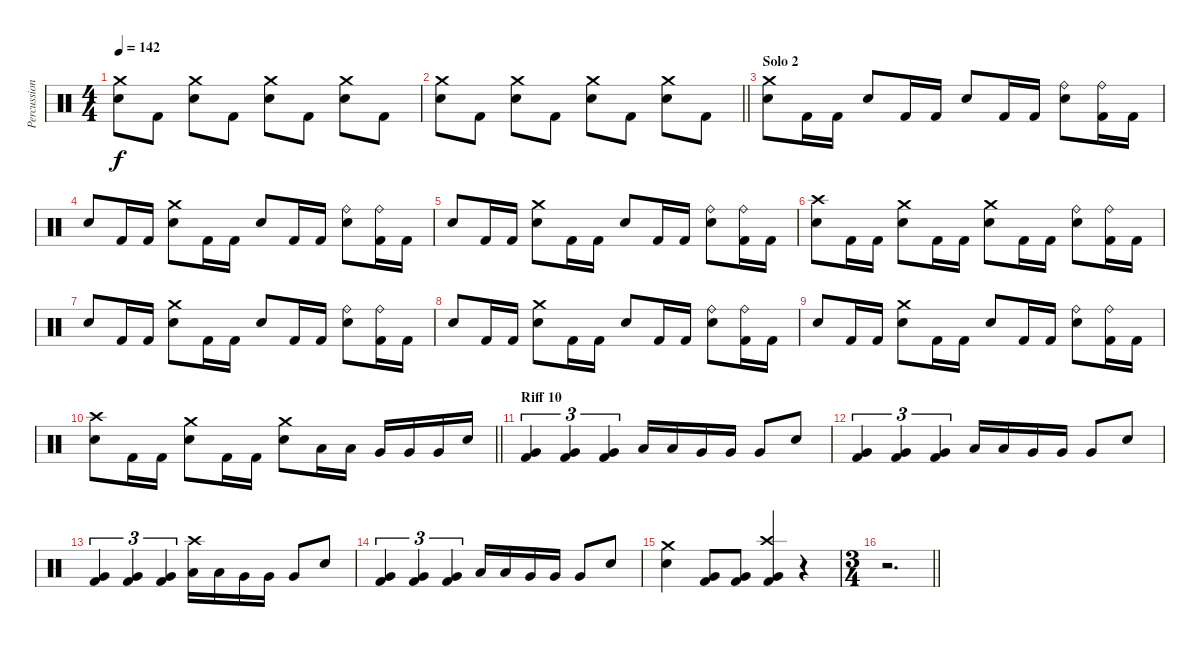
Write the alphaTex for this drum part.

\track ("Percussions" "Percussion") {instrument percussion}
\staff {score}
\articulation defaults
\ts (4 4)
\tempo 142
\clef neutral
\ks c
("Crash medium (hit)" "Electric Snare (hit)").8{dy f} "Kick (hit) 2".8 ("Crash medium (hit)" "Electric Snare (hit)").8 "Kick (hit) 2".8 ("Crash medium (hit)" "Electric Snare (hit)").8 "Kick (hit) 2".8 ("Crash medium (hit)" "Electric Snare (hit)").8 "Kick (hit) 2".8 |
\barLineRight lightlight
("Crash medium (hit)" "Electric Snare (hit)").8 "Kick (hit) 2".8 ("Crash medium (hit)" "Electric Snare (hit)").8 "Kick (hit) 2".8 ("Crash medium (hit)" "Electric Snare (hit)").8 "Kick (hit) 2".8 ("Crash medium (hit)" "Electric Snare (hit)").8 "Kick (hit) 2".8 |
\section ("" "Solo 2")
("Crash medium (hit)" "Electric Snare (hit)").8 "Kick (hit) 2".16 "Kick (hit) 2".16 "Electric Snare (hit)".8 "Kick (hit) 2".16 "Kick (hit) 2".16 "Electric Snare (hit)".8 "Kick (hit) 2".16 "Kick (hit) 2".16 ("Ride (bell)" "Electric Snare (hit)").8 ("Ride (bell)" "Kick (hit) 2").16 "Kick (hit) 2".16 |
"Electric Snare (hit)".8 "Kick (hit) 2".16 "Kick (hit) 2".16 ("Crash medium (hit)" "Electric Snare (hit)").8 "Kick (hit) 2".16 "Kick (hit) 2".16 "Electric Snare (hit)".8 "Kick (hit) 2".16 "Kick (hit) 2".16 ("Ride (bell)" "Electric Snare (hit)").8 ("Ride (bell)" "Kick (hit) 2").16 "Kick (hit) 2".16 |
"Electric Snare (hit)".8 "Kick (hit) 2".16 "Kick (hit) 2".16 ("Crash medium (hit)" "Electric Snare (hit)").8 "Kick (hit) 2".16 "Kick (hit) 2".16 "Electric Snare (hit)".8 "Kick (hit) 2".16 "Kick (hit) 2".16 ("Ride (bell)" "Electric Snare (hit)").8 ("Ride (bell)" "Kick (hit) 2").16 "Kick (hit) 2".16 |
("Crash high (hit)" "Electric Snare (hit)").8 "Kick (hit) 2".16 "Kick (hit) 2".16 ("Crash medium (hit)" "Electric Snare (hit)").8 "Kick (hit) 2".16 "Kick (hit) 2".16 ("Crash medium (hit)" "Electric Snare (hit)").8 "Kick (hit) 2".16 "Kick (hit) 2".16 ("Ride (bell)" "Electric Snare (hit)").8 ("Ride (bell)" "Kick (hit) 2").16 "Kick (hit) 2".16 |
"Electric Snare (hit)".8 "Kick (hit) 2".16 "Kick (hit) 2".16 ("Crash medium (hit)" "Electric Snare (hit)").8 "Kick (hit) 2".16 "Kick (hit) 2".16 "Electric Snare (hit)".8 "Kick (hit) 2".16 "Kick (hit) 2".16 ("Ride (bell)" "Electric Snare (hit)").8 ("Ride (bell)" "Kick (hit) 2").16 "Kick (hit) 2".16 |
"Electric Snare (hit)".8 "Kick (hit) 2".16 "Kick (hit) 2".16 ("Crash medium (hit)" "Electric Snare (hit)").8 "Kick (hit) 2".16 "Kick (hit) 2".16 "Electric Snare (hit)".8 "Kick (hit) 2".16 "Kick (hit) 2".16 ("Ride (bell)" "Electric Snare (hit)").8 ("Ride (bell)" "Kick (hit) 2").16 "Kick (hit) 2".16 |
"Electric Snare (hit)".8 "Kick (hit) 2".16 "Kick (hit) 2".16 ("Crash medium (hit)" "Electric Snare (hit)").8 "Kick (hit) 2".16 "Kick (hit) 2".16 "Electric Snare (hit)".8 "Kick (hit) 2".16 "Kick (hit) 2".16 ("Ride (bell)" "Electric Snare (hit)").8 ("Ride (bell)" "Kick (hit) 2").16 "Kick (hit) 2".16 |
\barLineRight lightlight
("Crash high (hit)" "Electric Snare (hit)").8 "Kick (hit) 2".16 "Kick (hit) 2".16 ("Crash medium (hit)" "Electric Snare (hit)").8 "Kick (hit) 2".16 "Kick (hit) 2".16 ("Crash medium (hit)" "Electric Snare (hit)").8 "Low Tom (hit)".16 "Low Tom (hit)".16 "Very Low Tom (hit)".16 "Very Low Tom (hit)".16 "Very Low Tom (hit)".16 "Electric Snare (hit)".16 |
\section ("" "Riff 10")
("Very Low Tom (hit)" "Kick (hit) 2").4{tu (3 2)} ("Very Low Tom (hit)" "Kick (hit) 2").4{tu (3 2)} ("Very Low Tom (hit)" "Kick (hit) 2").4{tu (3 2)} "Low Tom (hit)".16 "Low Tom (hit)".16 "Very Low Tom (hit)".16 "Very Low Tom (hit)".16 "Very Low Tom (hit)".8 "Electric Snare (hit)".8 |
("Very Low Tom (hit)" "Kick (hit) 2").4{tu (3 2)} ("Very Low Tom (hit)" "Kick (hit) 2").4{tu (3 2)} ("Very Low Tom (hit)" "Kick (hit) 2").4{tu (3 2)} "Low Tom (hit)".16 "Low Tom (hit)".16 "Very Low Tom (hit)".16 "Very Low Tom (hit)".16 "Very Low Tom (hit)".8 "Electric Snare (hit)".8 |
("Very Low Tom (hit)" "Kick (hit) 2").4{tu (3 2)} ("Very Low Tom (hit)" "Kick (hit) 2").4{tu (3 2)} ("Very Low Tom (hit)" "Kick (hit) 2").4{tu (3 2)} ("Crash high (hit)" "Low Tom (hit)").16 "Low Tom (hit)".16 "Very Low Tom (hit)".16 "Very Low Tom (hit)".16 "Very Low Tom (hit)".8 "Electric Snare (hit)".8 |
("Very Low Tom (hit)" "Kick (hit) 2").4{tu (3 2)} ("Very Low Tom (hit)" "Kick (hit) 2").4{tu (3 2)} ("Very Low Tom (hit)" "Kick (hit) 2").4{tu (3 2)} "Low Tom (hit)".16 "Low Tom (hit)".16 "Very Low Tom (hit)".16 "Very Low Tom (hit)".16 "Very Low Tom (hit)".8 "Electric Snare (hit)".8 |
("Crash medium (hit)" "Electric Snare (hit)").4 ("Very Low Tom (hit)" "Kick (hit) 2").8 ("Very Low Tom (hit)" "Kick (hit) 2").8 ("Crash high (hit)" "Very Low Tom (hit)" "Kick (hit) 2").4 r.4 |
\ts (3 4)
\barLineRight lightlight
r.2{d}
